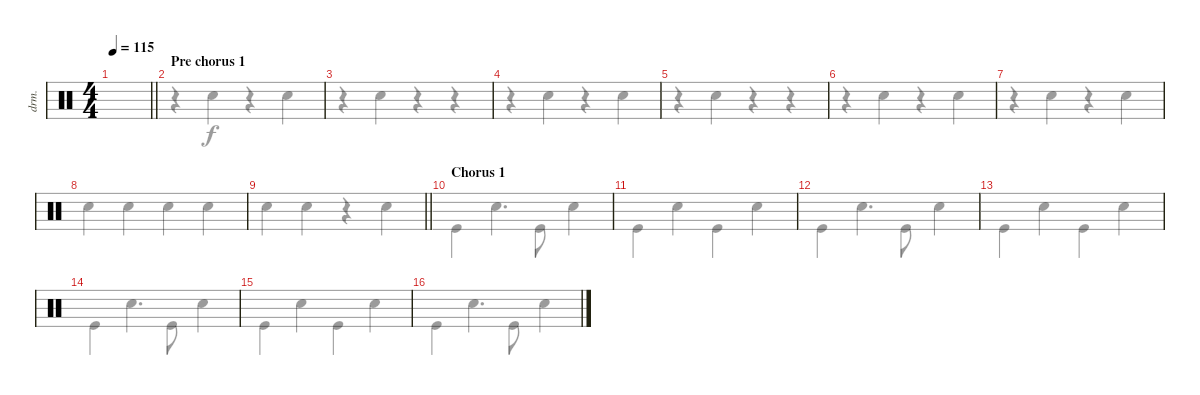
\defaultSystemsLayout 4
\bracketExtendMode groupsimilarinstruments
\otherSystemsTrackNameOrientation horizontal
\chordDiagramsInScore
\track ("Drumkit" "drm.") {instrument percussion}
\staff {score}
\articulation defaults
\voice
\ts (4 4)
\tempo 115
\clef neutral
\barLineRight lightlight
\ks c
|
\section ("" "Pre chorus 1")
|
|
|
|
|
|
|
\barLineRight lightlight
|
\section ("" "Chorus 1")
|
|
|
|
|
|
\voice
\clef neutral
\barLineRight lightlight
\ks c
|
r.4 "Snare (hit) 2".4 r.4 "Snare (hit) 2".4 |
r.4 "Snare (hit) 2".4 r.4 r.4 |
r.4 "Snare (hit) 2".4 r.4 "Snare (hit) 2".4 |
r.4 "Snare (hit) 2".4 r.4 r.4 |
r.4 "Snare (hit) 2".4 r.4 "Snare (hit) 2".4 |
r.4 "Snare (hit) 2".4 r.4 "Snare (hit) 2".4 |
"Snare (hit) 2".4 "Snare (hit) 2".4 "Snare (hit) 2".4 "Snare (hit) 2".4 |
\barLineRight lightlight "Snare (hit) 2".4 "Snare (hit) 2".4
r.4 "Snare (hit) 2".4 |
"Kick (hit)".4 "Snare (hit) 2".4{d} "Kick (hit)".8 "Snare (hit) 2".4 |
"Kick (hit)".4 "Snare (hit) 2".4 "Kick (hit)".4 "Snare (hit) 2".4 |
"Kick (hit)".4 "Snare (hit) 2".4{d} "Kick (hit)".8 "Snare (hit) 2".4 |
"Kick (hit)".4 "Snare (hit) 2".4 "Kick (hit)".4 "Snare (hit) 2".4 |
"Kick (hit)".4 "Snare (hit) 2".4{d} "Kick (hit)".8 "Snare (hit) 2".4 |
"Kick (hit)".4 "Snare (hit) 2".4 "Kick (hit)".4 "Snare (hit) 2".4 |
"Kick (hit)".4 "Snare (hit) 2".4{d} "Kick (hit)".8 "Snare (hit) 2".4
